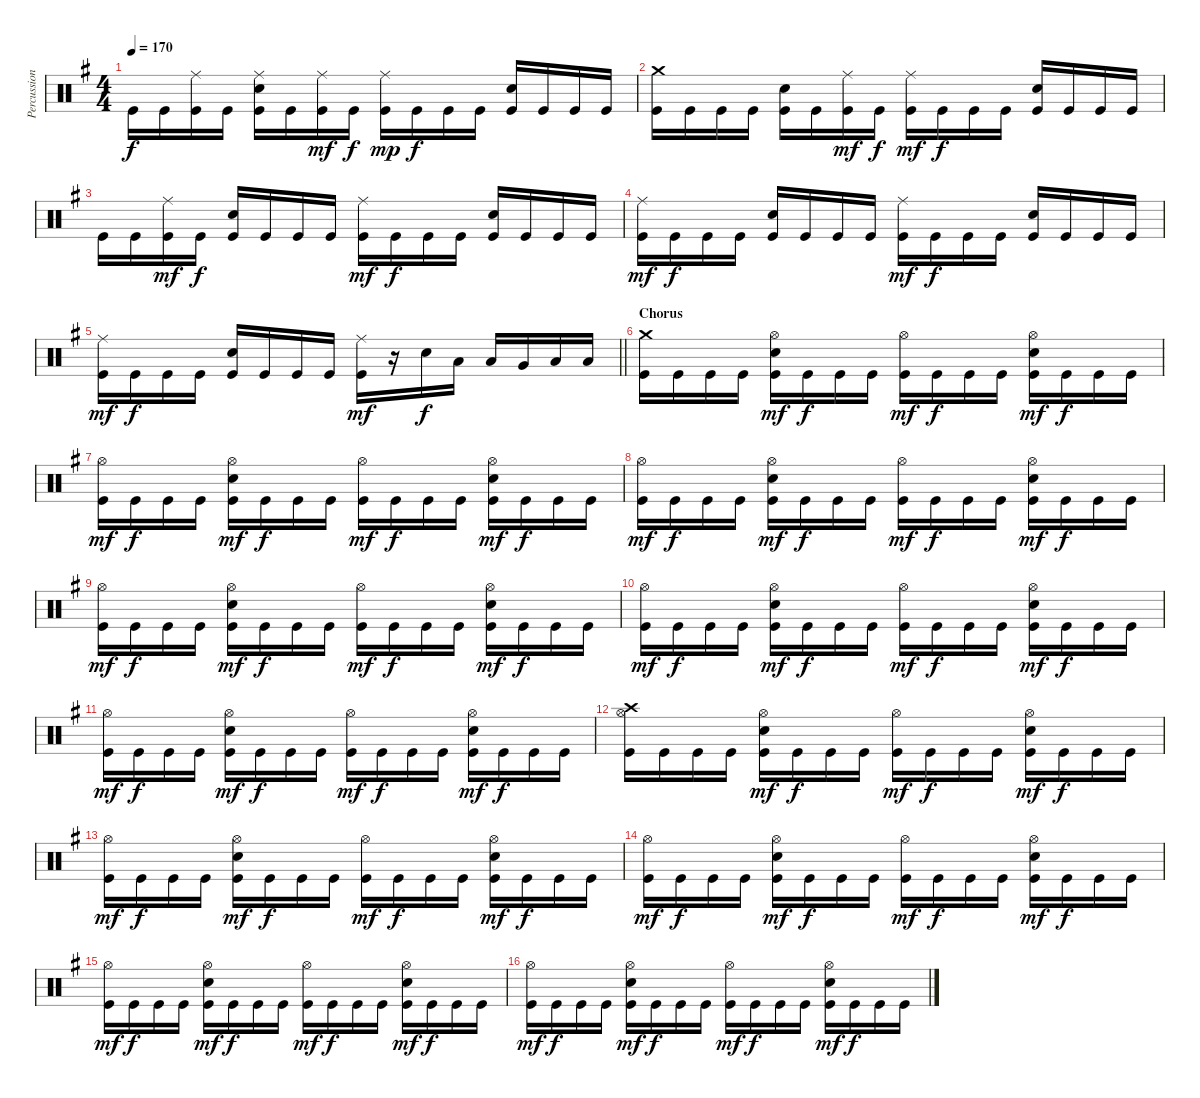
\track ("Percussion" "Percussion") {instrument percussion}
\staff {score}
\articulation defaults
\ts (4 4)
\tempo 170
\clef neutral
\ks g "Kick (hit)".16{dy f} "Kick (hit)".16
("Ride (middle)" "Kick (hit)").16 "Kick (hit)".16 ("Ride (middle)" "Snare (hit) 2" "Kick (hit)").16 "Kick (hit)".16 ("Ride (middle)" "Kick (hit)").16{dy mf} "Kick (hit)".16{dy f} ("Ride (middle)" "Kick (hit)").16{dy mp} "Kick (hit)".16{dy f} "Kick (hit)".16 "Kick (hit)".16 ("Snare (hit) 2" "Kick (hit)").16 "Kick (hit)".16 "Kick (hit)".16 "Kick (hit)".16 |
("Crash medium (hit)" "Kick (hit)").16 "Kick (hit)".16 "Kick (hit)".16 "Kick (hit)".16 ("Snare (hit) 2" "Kick (hit)").16 "Kick (hit)".16 ("Ride (middle)" "Kick (hit)").16{dy mf} "Kick (hit)".16{dy f} ("Ride (middle)" "Kick (hit)").16{dy mf} "Kick (hit)".16{dy f} "Kick (hit)".16 "Kick (hit)".16 ("Snare (hit) 2" "Kick (hit)").16 "Kick (hit)".16 "Kick (hit)".16 "Kick (hit)".16 |
"Kick (hit)".16 "Kick (hit)".16 ("Ride (middle)" "Kick (hit)").16{dy mf} "Kick (hit)".16{dy f} ("Snare (hit) 2" "Kick (hit)").16 "Kick (hit)".16 "Kick (hit)".16 "Kick (hit)".16 ("Ride (middle)" "Kick (hit)").16{dy mf} "Kick (hit)".16{dy f} "Kick (hit)".16 "Kick (hit)".16 ("Snare (hit) 2" "Kick (hit)").16 "Kick (hit)".16 "Kick (hit)".16 "Kick (hit)".16 |
("Ride (middle)" "Kick (hit)").16{dy mf} "Kick (hit)".16{dy f} "Kick (hit)".16 "Kick (hit)".16 ("Snare (hit) 2" "Kick (hit)").16 "Kick (hit)".16 "Kick (hit)".16 "Kick (hit)".16 ("Ride (middle)" "Kick (hit)").16{dy mf} "Kick (hit)".16{dy f} "Kick (hit)".16 "Kick (hit)".16 ("Snare (hit) 2" "Kick (hit)").16 "Kick (hit)".16 "Kick (hit)".16 "Kick (hit)".16 |
\barLineRight lightlight
("Ride (middle)" "Kick (hit)").16{dy mf} "Kick (hit)".16{dy f} "Kick (hit)".16 "Kick (hit)".16 ("Snare (hit) 2" "Kick (hit)").16 "Kick (hit)".16 "Kick (hit)".16 "Kick (hit)".16 ("Ride (middle)" "Kick (hit)").16{dy mf} r.16 "Snare (hit) 2".16{dy f} "Low Tom (hit)".16 "Low Tom (hit)".16 "Very Low Tom (hit)".16 "Low Floor Tom (hit)".16 "Low Floor Tom (hit)".16 |
\section ("" "Chorus")
("Crash medium (hit)" "Kick (hit)").16 "Kick (hit)".16 "Kick (hit)".16 "Kick (hit)".16 ("Hi-Hat (open)" "Snare (hit) 2" "Kick (hit)").16{dy mf} "Kick (hit)".16{dy f} "Kick (hit)".16 "Kick (hit)".16 ("Hi-Hat (open)" "Kick (hit)").16{dy mf} "Kick (hit)".16{dy f} "Kick (hit)".16 "Kick (hit)".16 ("Hi-Hat (open)" "Snare (hit) 2" "Kick (hit)").16{dy mf} "Kick (hit)".16{dy f} "Kick (hit)".16 "Kick (hit)".16 |
("Hi-Hat (open)" "Kick (hit)").16{dy mf} "Kick (hit)".16{dy f} "Kick (hit)".16 "Kick (hit)".16 ("Hi-Hat (open)" "Snare (hit) 2" "Kick (hit)").16{dy mf} "Kick (hit)".16{dy f} "Kick (hit)".16 "Kick (hit)".16 ("Hi-Hat (open)" "Kick (hit)").16{dy mf} "Kick (hit)".16{dy f} "Kick (hit)".16 "Kick (hit)".16 ("Hi-Hat (open)" "Snare (hit) 2" "Kick (hit)").16{dy mf} "Kick (hit)".16{dy f} "Kick (hit)".16 "Kick (hit)".16 |
("Hi-Hat (open)" "Kick (hit)").16{dy mf} "Kick (hit)".16{dy f} "Kick (hit)".16 "Kick (hit)".16 ("Hi-Hat (open)" "Snare (hit) 2" "Kick (hit)").16{dy mf} "Kick (hit)".16{dy f} "Kick (hit)".16 "Kick (hit)".16 ("Hi-Hat (open)" "Kick (hit)").16{dy mf} "Kick (hit)".16{dy f} "Kick (hit)".16 "Kick (hit)".16 ("Hi-Hat (open)" "Snare (hit) 2" "Kick (hit)").16{dy mf} "Kick (hit)".16{dy f} "Kick (hit)".16 "Kick (hit)".16 |
("Hi-Hat (open)" "Kick (hit)").16{dy mf} "Kick (hit)".16{dy f} "Kick (hit)".16 "Kick (hit)".16 ("Hi-Hat (open)" "Snare (hit) 2" "Kick (hit)").16{dy mf} "Kick (hit)".16{dy f} "Kick (hit)".16 "Kick (hit)".16 ("Hi-Hat (open)" "Kick (hit)").16{dy mf} "Kick (hit)".16{dy f} "Kick (hit)".16 "Kick (hit)".16 ("Hi-Hat (open)" "Snare (hit) 2" "Kick (hit)").16{dy mf} "Kick (hit)".16{dy f} "Kick (hit)".16 "Kick (hit)".16 |
("Hi-Hat (open)" "Kick (hit)").16{dy mf} "Kick (hit)".16{dy f} "Kick (hit)".16 "Kick (hit)".16 ("Hi-Hat (open)" "Snare (hit) 2" "Kick (hit)").16{dy mf} "Kick (hit)".16{dy f} "Kick (hit)".16 "Kick (hit)".16 ("Hi-Hat (open)" "Kick (hit)").16{dy mf} "Kick (hit)".16{dy f} "Kick (hit)".16 "Kick (hit)".16 ("Hi-Hat (open)" "Snare (hit) 2" "Kick (hit)").16{dy mf} "Kick (hit)".16{dy f} "Kick (hit)".16 "Kick (hit)".16 |
("Hi-Hat (open)" "Kick (hit)").16{dy mf} "Kick (hit)".16{dy f} "Kick (hit)".16 "Kick (hit)".16 ("Hi-Hat (open)" "Snare (hit) 2" "Kick (hit)").16{dy mf} "Kick (hit)".16{dy f} "Kick (hit)".16 "Kick (hit)".16 ("Hi-Hat (open)" "Kick (hit)").16{dy mf} "Kick (hit)".16{dy f} "Kick (hit)".16 "Kick (hit)".16 ("Hi-Hat (open)" "Snare (hit) 2" "Kick (hit)").16{dy mf} "Kick (hit)".16{dy f} "Kick (hit)".16 "Kick (hit)".16 |
("Crash high (hit)" "Hi-Hat (open)" "Kick (hit)").16 "Kick (hit)".16 "Kick (hit)".16 "Kick (hit)".16 ("Hi-Hat (open)" "Snare (hit) 2" "Kick (hit)").16{dy mf} "Kick (hit)".16{dy f} "Kick (hit)".16 "Kick (hit)".16 ("Hi-Hat (open)" "Kick (hit)").16{dy mf} "Kick (hit)".16{dy f} "Kick (hit)".16 "Kick (hit)".16 ("Hi-Hat (open)" "Snare (hit) 2" "Kick (hit)").16{dy mf} "Kick (hit)".16{dy f} "Kick (hit)".16 "Kick (hit)".16 |
("Hi-Hat (open)" "Kick (hit)").16{dy mf} "Kick (hit)".16{dy f} "Kick (hit)".16 "Kick (hit)".16 ("Hi-Hat (open)" "Snare (hit) 2" "Kick (hit)").16{dy mf} "Kick (hit)".16{dy f} "Kick (hit)".16 "Kick (hit)".16 ("Hi-Hat (open)" "Kick (hit)").16{dy mf} "Kick (hit)".16{dy f} "Kick (hit)".16 "Kick (hit)".16 ("Hi-Hat (open)" "Snare (hit) 2" "Kick (hit)").16{dy mf} "Kick (hit)".16{dy f} "Kick (hit)".16 "Kick (hit)".16 |
("Hi-Hat (open)" "Kick (hit)").16{dy mf} "Kick (hit)".16{dy f} "Kick (hit)".16 "Kick (hit)".16 ("Hi-Hat (open)" "Snare (hit) 2" "Kick (hit)").16{dy mf} "Kick (hit)".16{dy f} "Kick (hit)".16 "Kick (hit)".16 ("Hi-Hat (open)" "Kick (hit)").16{dy mf} "Kick (hit)".16{dy f} "Kick (hit)".16 "Kick (hit)".16 ("Hi-Hat (open)" "Snare (hit) 2" "Kick (hit)").16{dy mf} "Kick (hit)".16{dy f} "Kick (hit)".16 "Kick (hit)".16 |
("Hi-Hat (open)" "Kick (hit)").16{dy mf} "Kick (hit)".16{dy f} "Kick (hit)".16 "Kick (hit)".16 ("Hi-Hat (open)" "Snare (hit) 2" "Kick (hit)").16{dy mf} "Kick (hit)".16{dy f} "Kick (hit)".16 "Kick (hit)".16 ("Hi-Hat (open)" "Kick (hit)").16{dy mf} "Kick (hit)".16{dy f} "Kick (hit)".16 "Kick (hit)".16 ("Hi-Hat (open)" "Snare (hit) 2" "Kick (hit)").16{dy mf} "Kick (hit)".16{dy f} "Kick (hit)".16 "Kick (hit)".16 |
("Hi-Hat (open)" "Kick (hit)").16{dy mf} "Kick (hit)".16{dy f} "Kick (hit)".16 "Kick (hit)".16 ("Hi-Hat (open)" "Snare (hit) 2" "Kick (hit)").16{dy mf} "Kick (hit)".16{dy f} "Kick (hit)".16 "Kick (hit)".16 ("Hi-Hat (open)" "Kick (hit)").16{dy mf} "Kick (hit)".16{dy f} "Kick (hit)".16 "Kick (hit)".16 ("Hi-Hat (open)" "Snare (hit) 2" "Kick (hit)").16{dy mf} "Kick (hit)".16{dy f} "Kick (hit)".16 "Kick (hit)".16
